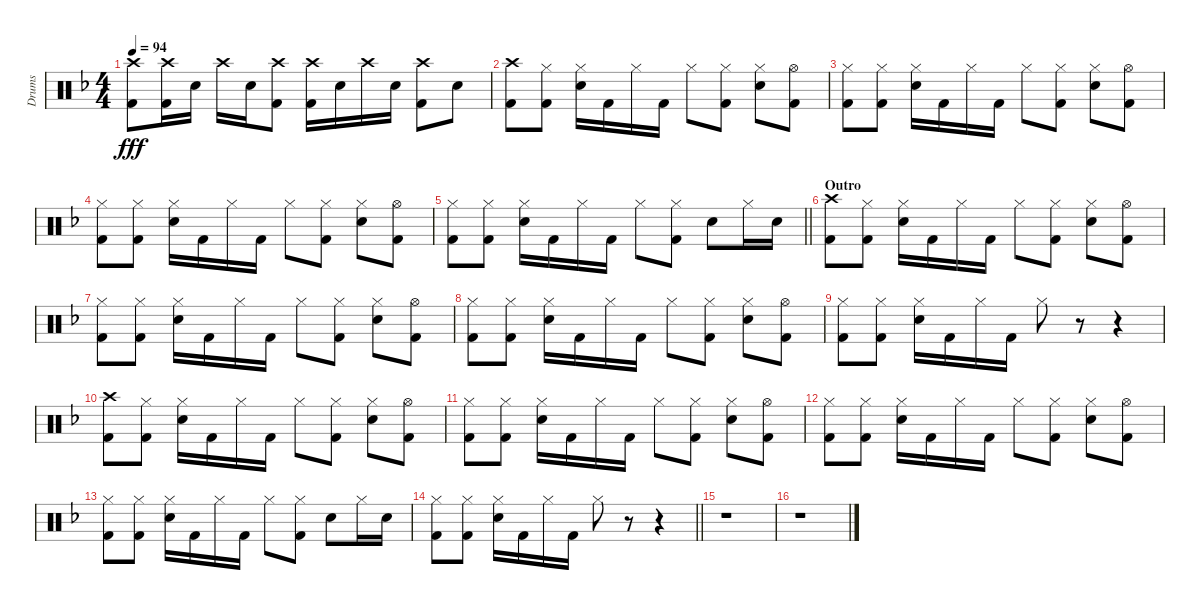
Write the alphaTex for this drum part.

\track ("Drums" "Drums") {instrument percussion}
\staff {score}
\articulation defaults
\ts (4 4)
\tempo 94
\clef neutral
\ks f
("Crash high (hit)" "Kick (hit) 2").8{dy fff} ("Crash high (hit)" "Kick (hit) 2").16 "Snare (hit) 2".16 "Crash high (hit)".16 "Snare (hit) 2".16 ("Crash high (hit)" "Kick (hit) 2").8 ("Crash high (hit)" "Kick (hit) 2").16 "Snare (hit) 2".16 "Crash high (hit)".16 "Snare (hit) 2".16 ("Crash high (hit)" "Kick (hit) 2").8 "Snare (hit) 2".8 |
("Crash high (hit)" "Kick (hit) 2").8 ("Hi-Hat (closed)" "Kick (hit) 2").8 ("Hi-Hat (closed)" "Snare (hit) 2").16 "Kick (hit) 2".16 "Hi-Hat (closed)".16 "Kick (hit) 2".16 "Hi-Hat (closed)".8 ("Hi-Hat (closed)" "Kick (hit) 2").8 ("Hi-Hat (closed)" "Snare (hit) 2").8 ("Hi-Hat (open)" "Kick (hit) 2").8 |
("Hi-Hat (closed)" "Kick (hit) 2").8 ("Hi-Hat (closed)" "Kick (hit) 2").8 ("Hi-Hat (closed)" "Snare (hit) 2").16 "Kick (hit) 2".16 "Hi-Hat (closed)".16 "Kick (hit) 2".16 "Hi-Hat (closed)".8 ("Hi-Hat (closed)" "Kick (hit) 2").8 ("Hi-Hat (closed)" "Snare (hit) 2").8 ("Hi-Hat (open)" "Kick (hit) 2").8 |
("Hi-Hat (closed)" "Kick (hit) 2").8 ("Hi-Hat (closed)" "Kick (hit) 2").8 ("Hi-Hat (closed)" "Snare (hit) 2").16 "Kick (hit) 2".16 "Hi-Hat (closed)".16 "Kick (hit) 2".16 "Hi-Hat (closed)".8 ("Hi-Hat (closed)" "Kick (hit) 2").8 ("Hi-Hat (closed)" "Snare (hit) 2").8 ("Hi-Hat (open)" "Kick (hit) 2").8 |
\barLineRight lightlight
("Hi-Hat (closed)" "Kick (hit) 2").8 ("Hi-Hat (closed)" "Kick (hit) 2").8 ("Hi-Hat (closed)" "Snare (hit) 2").16 "Kick (hit) 2".16 "Hi-Hat (closed)".16 "Kick (hit) 2".16 "Hi-Hat (closed)".8 ("Hi-Hat (closed)" "Kick (hit) 2").8 "Snare (hit) 2".8 "Hi-Hat (closed)".16 "Snare (hit) 2".16 |
\section ("" "Outro")
("Crash high (hit)" "Kick (hit) 2").8 ("Hi-Hat (closed)" "Kick (hit) 2").8 ("Hi-Hat (closed)" "Snare (hit) 2").16 "Kick (hit) 2".16 "Hi-Hat (closed)".16 "Kick (hit) 2".16 "Hi-Hat (closed)".8 ("Hi-Hat (closed)" "Kick (hit) 2").8 ("Hi-Hat (closed)" "Snare (hit) 2").8 ("Hi-Hat (open)" "Kick (hit) 2").8 |
("Hi-Hat (closed)" "Kick (hit) 2").8 ("Hi-Hat (closed)" "Kick (hit) 2").8 ("Hi-Hat (closed)" "Snare (hit) 2").16 "Kick (hit) 2".16 "Hi-Hat (closed)".16 "Kick (hit) 2".16 "Hi-Hat (closed)".8 ("Hi-Hat (closed)" "Kick (hit) 2").8 ("Hi-Hat (closed)" "Snare (hit) 2").8 ("Hi-Hat (open)" "Kick (hit) 2").8 |
("Hi-Hat (closed)" "Kick (hit) 2").8 ("Hi-Hat (closed)" "Kick (hit) 2").8 ("Hi-Hat (closed)" "Snare (hit) 2").16 "Kick (hit) 2".16 "Hi-Hat (closed)".16 "Kick (hit) 2".16 "Hi-Hat (closed)".8 ("Hi-Hat (closed)" "Kick (hit) 2").8 ("Hi-Hat (closed)" "Snare (hit) 2").8 ("Hi-Hat (open)" "Kick (hit) 2").8 |
("Hi-Hat (closed)" "Kick (hit) 2").8 ("Hi-Hat (closed)" "Kick (hit) 2").8 ("Hi-Hat (closed)" "Snare (hit) 2").16 "Kick (hit) 2".16 "Hi-Hat (closed)".16 "Kick (hit) 2".16 "Hi-Hat (closed)".8 r.8 r.4 |
("Crash high (hit)" "Kick (hit) 2").8 ("Hi-Hat (closed)" "Kick (hit) 2").8 ("Hi-Hat (closed)" "Snare (hit) 2").16 "Kick (hit) 2".16 "Hi-Hat (closed)".16 "Kick (hit) 2".16 "Hi-Hat (closed)".8 ("Hi-Hat (closed)" "Kick (hit) 2").8 ("Hi-Hat (closed)" "Snare (hit) 2").8 ("Hi-Hat (open)" "Kick (hit) 2").8 |
("Hi-Hat (closed)" "Kick (hit) 2").8 ("Hi-Hat (closed)" "Kick (hit) 2").8 ("Hi-Hat (closed)" "Snare (hit) 2").16 "Kick (hit) 2".16 "Hi-Hat (closed)".16 "Kick (hit) 2".16 "Hi-Hat (closed)".8 ("Hi-Hat (closed)" "Kick (hit) 2").8 ("Hi-Hat (closed)" "Snare (hit) 2").8 ("Hi-Hat (open)" "Kick (hit) 2").8 |
("Hi-Hat (closed)" "Kick (hit) 2").8 ("Hi-Hat (closed)" "Kick (hit) 2").8 ("Hi-Hat (closed)" "Snare (hit) 2").16 "Kick (hit) 2".16 "Hi-Hat (closed)".16 "Kick (hit) 2".16 "Hi-Hat (closed)".8 ("Hi-Hat (closed)" "Kick (hit) 2").8 ("Hi-Hat (closed)" "Snare (hit) 2").8 ("Hi-Hat (open)" "Kick (hit) 2").8 |
("Hi-Hat (closed)" "Kick (hit) 2").8 ("Hi-Hat (closed)" "Kick (hit) 2").8 ("Hi-Hat (closed)" "Snare (hit) 2").16 "Kick (hit) 2".16 "Hi-Hat (closed)".16 "Kick (hit) 2".16 "Hi-Hat (closed)".8 ("Hi-Hat (closed)" "Kick (hit) 2").8 "Snare (hit) 2".8 "Hi-Hat (closed)".16 "Snare (hit) 2".16 |
\barLineRight lightlight
("Hi-Hat (closed)" "Kick (hit) 2").8 ("Hi-Hat (closed)" "Kick (hit) 2").8 ("Hi-Hat (closed)" "Snare (hit) 2").16 "Kick (hit) 2".16 "Hi-Hat (closed)".16 "Kick (hit) 2".16 "Hi-Hat (closed)".8 r.8 r.4 |
r.1 |
r.1
